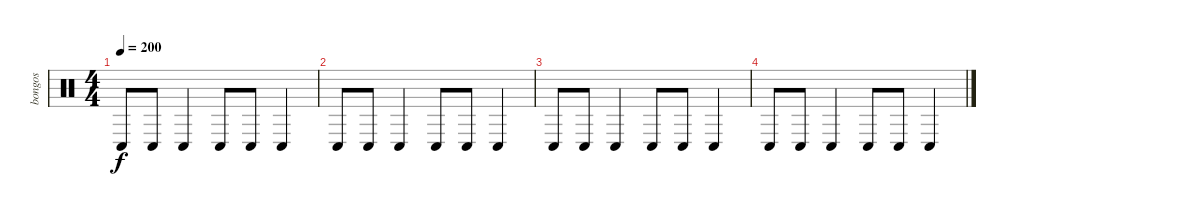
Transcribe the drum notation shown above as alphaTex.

\track ("bongos" "bongos") {instrument percussion}
\staff {score}
\articulation defaults
\ts (4 4)
\tempo 200
\clef neutral
\ks c "Conga low (hit)".8{dy f} "Conga low (hit)".8 "Conga low (hit)".4 "Conga low (hit)".8 "Conga low (hit)".8 "Conga low (hit)".4
|
"Conga low (hit)".8 "Conga low (hit)".8 "Conga low (hit)".4 "Conga low (hit)".8 "Conga low (hit)".8 "Conga low (hit)".4 |
"Conga low (hit)".8 "Conga low (hit)".8 "Conga low (hit)".4 "Conga low (hit)".8 "Conga low (hit)".8 "Conga low (hit)".4 |
"Conga low (hit)".8 "Conga low (hit)".8 "Conga low (hit)".4 "Conga low (hit)".8 "Conga low (hit)".8 "Conga low (hit)".4
